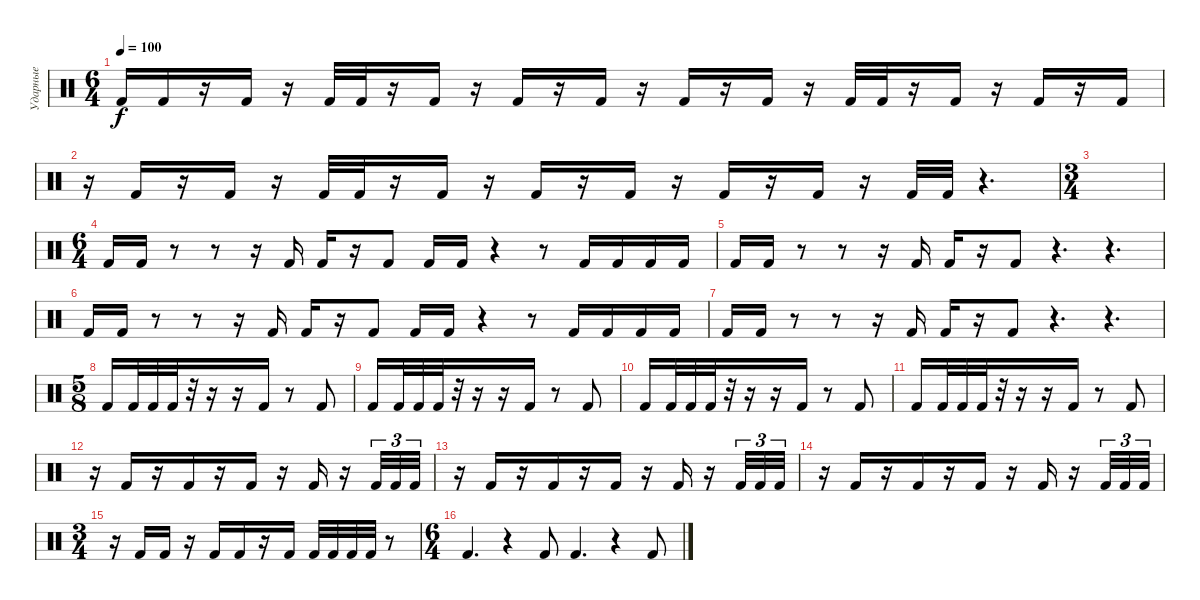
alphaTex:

\track ("Ударные" "Ударные") {instrument percussion}
\staff {score}
\articulation defaults
\ts (6 4)
\tempo 100
\clef neutral
\ks c "Kick (hit) 2".16{dy f} "Kick (hit) 2".16
r.16 "Kick (hit) 2".16 r.16 "Kick (hit) 2".32 "Kick (hit) 2".32 r.16 "Kick (hit) 2".16 r.16 "Kick (hit) 2".16 r.16 "Kick (hit) 2".16 r.16 "Kick (hit) 2".16 r.16 "Kick (hit) 2".16 r.16 "Kick (hit) 2".32 "Kick (hit) 2".32 r.16 "Kick (hit) 2".16 r.16 "Kick (hit) 2".16 r.16 "Kick (hit) 2".16 |
r.16 "Kick (hit) 2".16 r.16 "Kick (hit) 2".16 r.16 "Kick (hit) 2".32 "Kick (hit) 2".32 r.16 "Kick (hit) 2".16 r.16 "Kick (hit) 2".16 r.16 "Kick (hit) 2".16 r.16 "Kick (hit) 2".16 r.16 "Kick (hit) 2".16 r.16 "Kick (hit) 2".32 "Kick (hit) 2".32 r.4{d} |
\ts (3 4)
|
\ts (6 4)
"Kick (hit) 2".16 "Kick (hit) 2".16 r.8 r.8 r.16 "Kick (hit) 2".16 "Kick (hit) 2".16 r.16 "Kick (hit) 2".8 "Kick (hit) 2".16 "Kick (hit) 2".16 r.4 r.8 "Kick (hit) 2".16 "Kick (hit) 2".16 "Kick (hit) 2".16 "Kick (hit) 2".16 |
"Kick (hit) 2".16 "Kick (hit) 2".16 r.8 r.8 r.16 "Kick (hit) 2".16 "Kick (hit) 2".16 r.16 "Kick (hit) 2".8 r.4{d} r.4{d} |
"Kick (hit) 2".16 "Kick (hit) 2".16 r.8 r.8 r.16 "Kick (hit) 2".16 "Kick (hit) 2".16 r.16 "Kick (hit) 2".8 "Kick (hit) 2".16 "Kick (hit) 2".16 r.4 r.8 "Kick (hit) 2".16 "Kick (hit) 2".16 "Kick (hit) 2".16 "Kick (hit) 2".16 |
"Kick (hit) 2".16 "Kick (hit) 2".16 r.8 r.8 r.16 "Kick (hit) 2".16 "Kick (hit) 2".16 r.16 "Kick (hit) 2".8 r.4{d} r.4{d} |
\ts (5 8)
"Kick (hit) 2".16 "Kick (hit) 2".32 "Kick (hit) 2".32 "Kick (hit) 2".32 r.32 r.16 r.16 "Kick (hit) 2".16 r.8 "Kick (hit) 2".8 |
"Kick (hit) 2".16 "Kick (hit) 2".32 "Kick (hit) 2".32 "Kick (hit) 2".32 r.32 r.16 r.16 "Kick (hit) 2".16 r.8 "Kick (hit) 2".8 |
"Kick (hit) 2".16 "Kick (hit) 2".32 "Kick (hit) 2".32 "Kick (hit) 2".32 r.32 r.16 r.16 "Kick (hit) 2".16 r.8 "Kick (hit) 2".8 |
"Kick (hit) 2".16 "Kick (hit) 2".32 "Kick (hit) 2".32 "Kick (hit) 2".32 r.32 r.16 r.16 "Kick (hit) 2".16 r.8 "Kick (hit) 2".8 |
r.16 "Kick (hit) 2".16 r.16 "Kick (hit) 2".16 r.16 "Kick (hit) 2".16 r.16 "Kick (hit) 2".16 r.16 "Kick (hit) 2".32{tu (3 2)} "Kick (hit) 2".32{tu (3 2)} "Kick (hit) 2".32{tu (3 2)} |
r.16 "Kick (hit) 2".16 r.16 "Kick (hit) 2".16 r.16 "Kick (hit) 2".16 r.16 "Kick (hit) 2".16 r.16 "Kick (hit) 2".32{tu (3 2)} "Kick (hit) 2".32{tu (3 2)} "Kick (hit) 2".32{tu (3 2)} |
r.16 "Kick (hit) 2".16 r.16 "Kick (hit) 2".16 r.16 "Kick (hit) 2".16 r.16 "Kick (hit) 2".16 r.16 "Kick (hit) 2".32{tu (3 2)} "Kick (hit) 2".32{tu (3 2)} "Kick (hit) 2".32{tu (3 2)} |
\ts (3 4)
r.16 "Kick (hit) 2".16 "Kick (hit) 2".16 r.16 "Kick (hit) 2".16 "Kick (hit) 2".16 r.16 "Kick (hit) 2".16 "Kick (hit) 2".32 "Kick (hit) 2".32 "Kick (hit) 2".32 "Kick (hit) 2".32 r.8 |
\ts (6 4)
"Kick (hit) 2".4{d} r.4 "Kick (hit) 2".8 "Kick (hit) 2".4{d} r.4 "Kick (hit) 2".8
